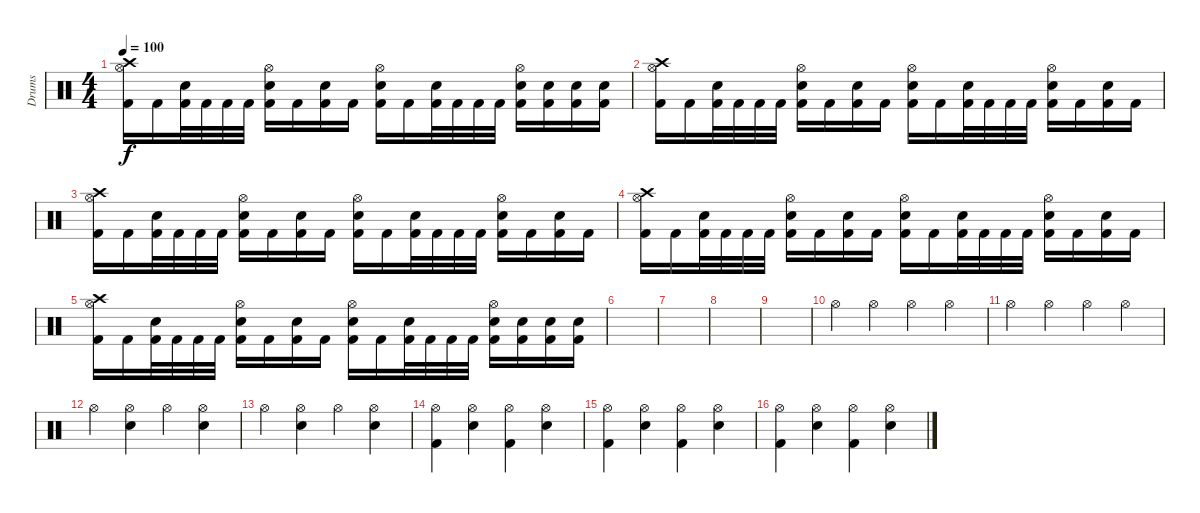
\track ("Drums" "Drums") {instrument percussion}
\staff {score}
\articulation defaults
\ts (4 4)
\tempo 100
\clef neutral
\ks c
("Crash high (hit)" "Hi-Hat (open)" "Kick (hit) 2").16{dy f} "Kick (hit) 2".16 ("Electric Snare (hit)" "Kick (hit) 2").32 "Kick (hit) 2".32 "Kick (hit) 2".32 "Kick (hit) 2".32 ("Hi-Hat (open)" "Electric Snare (hit)" "Kick (hit) 2").16 "Kick (hit) 2".16 ("Electric Snare (hit)" "Kick (hit) 2").16 "Kick (hit) 2".16 ("Hi-Hat (open)" "Electric Snare (hit)" "Kick (hit) 2").16 "Kick (hit) 2".16 ("Electric Snare (hit)" "Kick (hit) 2").32 "Kick (hit) 2".32 "Kick (hit) 2".32 "Kick (hit) 2".32 ("Hi-Hat (open)" "Electric Snare (hit)" "Kick (hit) 2").16 ("Electric Snare (hit)" "Kick (hit) 2").16 ("Electric Snare (hit)" "Kick (hit) 2").16 ("Electric Snare (hit)" "Kick (hit) 2").16 |
("Crash high (hit)" "Hi-Hat (open)" "Kick (hit) 2").16 "Kick (hit) 2".16 ("Electric Snare (hit)" "Kick (hit) 2").32 "Kick (hit) 2".32 "Kick (hit) 2".32 "Kick (hit) 2".32 ("Hi-Hat (open)" "Electric Snare (hit)" "Kick (hit) 2").16 "Kick (hit) 2".16 ("Electric Snare (hit)" "Kick (hit) 2").16 "Kick (hit) 2".16 ("Hi-Hat (open)" "Electric Snare (hit)" "Kick (hit) 2").16 "Kick (hit) 2".16 ("Electric Snare (hit)" "Kick (hit) 2").32 "Kick (hit) 2".32 "Kick (hit) 2".32 "Kick (hit) 2".32 ("Hi-Hat (open)" "Electric Snare (hit)" "Kick (hit) 2").16 "Kick (hit) 2".16 ("Electric Snare (hit)" "Kick (hit) 2").16 "Kick (hit) 2".16 |
("Crash high (hit)" "Hi-Hat (open)" "Kick (hit) 2").16 "Kick (hit) 2".16 ("Electric Snare (hit)" "Kick (hit) 2").32 "Kick (hit) 2".32 "Kick (hit) 2".32 "Kick (hit) 2".32 ("Hi-Hat (open)" "Electric Snare (hit)" "Kick (hit) 2").16 "Kick (hit) 2".16 ("Electric Snare (hit)" "Kick (hit) 2").16 "Kick (hit) 2".16 ("Hi-Hat (open)" "Electric Snare (hit)" "Kick (hit) 2").16 "Kick (hit) 2".16 ("Electric Snare (hit)" "Kick (hit) 2").32 "Kick (hit) 2".32 "Kick (hit) 2".32 "Kick (hit) 2".32 ("Hi-Hat (open)" "Electric Snare (hit)" "Kick (hit) 2").16 "Kick (hit) 2".16 ("Electric Snare (hit)" "Kick (hit) 2").16 "Kick (hit) 2".16 |
("Crash high (hit)" "Hi-Hat (open)" "Kick (hit) 2").16 "Kick (hit) 2".16 ("Electric Snare (hit)" "Kick (hit) 2").32 "Kick (hit) 2".32 "Kick (hit) 2".32 "Kick (hit) 2".32 ("Hi-Hat (open)" "Electric Snare (hit)" "Kick (hit) 2").16 "Kick (hit) 2".16 ("Electric Snare (hit)" "Kick (hit) 2").16 "Kick (hit) 2".16 ("Hi-Hat (open)" "Electric Snare (hit)" "Kick (hit) 2").16 "Kick (hit) 2".16 ("Electric Snare (hit)" "Kick (hit) 2").32 "Kick (hit) 2".32 "Kick (hit) 2".32 "Kick (hit) 2".32 ("Hi-Hat (open)" "Electric Snare (hit)" "Kick (hit) 2").16 "Kick (hit) 2".16 ("Electric Snare (hit)" "Kick (hit) 2").16 "Kick (hit) 2".16 |
("Crash high (hit)" "Hi-Hat (open)" "Kick (hit) 2").16 "Kick (hit) 2".16 ("Electric Snare (hit)" "Kick (hit) 2").32 "Kick (hit) 2".32 "Kick (hit) 2".32 "Kick (hit) 2".32 ("Hi-Hat (open)" "Electric Snare (hit)" "Kick (hit) 2").16 "Kick (hit) 2".16 ("Electric Snare (hit)" "Kick (hit) 2").16 "Kick (hit) 2".16 ("Hi-Hat (open)" "Electric Snare (hit)" "Kick (hit) 2").16 "Kick (hit) 2".16 ("Electric Snare (hit)" "Kick (hit) 2").32 "Kick (hit) 2".32 "Kick (hit) 2".32 "Kick (hit) 2".32 ("Hi-Hat (open)" "Electric Snare (hit)" "Kick (hit) 2").16 ("Electric Snare (hit)" "Kick (hit) 2").16 ("Electric Snare (hit)" "Kick (hit) 2").16 ("Electric Snare (hit)" "Kick (hit) 2").16 |
|
|
|
|
"Hi-Hat (open)".4 "Hi-Hat (open)".4 "Hi-Hat (open)".4 "Hi-Hat (open)".4 |
"Hi-Hat (open)".4 "Hi-Hat (open)".4 "Hi-Hat (open)".4 "Hi-Hat (open)".4 |
"Hi-Hat (open)".4 ("Hi-Hat (open)" "Electric Snare (hit)").4 "Hi-Hat (open)".4 ("Hi-Hat (open)" "Electric Snare (hit)").4 |
"Hi-Hat (open)".4 ("Hi-Hat (open)" "Electric Snare (hit)").4 "Hi-Hat (open)".4 ("Hi-Hat (open)" "Electric Snare (hit)").4 |
("Hi-Hat (open)" "Kick (hit) 2").4 ("Hi-Hat (open)" "Electric Snare (hit)").4 ("Hi-Hat (open)" "Kick (hit) 2").4 ("Hi-Hat (open)" "Electric Snare (hit)").4 |
("Hi-Hat (open)" "Kick (hit) 2").4 ("Hi-Hat (open)" "Electric Snare (hit)").4 ("Hi-Hat (open)" "Kick (hit) 2").4 ("Hi-Hat (open)" "Electric Snare (hit)").4 |
("Hi-Hat (open)" "Kick (hit) 2").4 ("Hi-Hat (open)" "Electric Snare (hit)").4 ("Hi-Hat (open)" "Kick (hit) 2").4 ("Hi-Hat (open)" "Electric Snare (hit)").4
